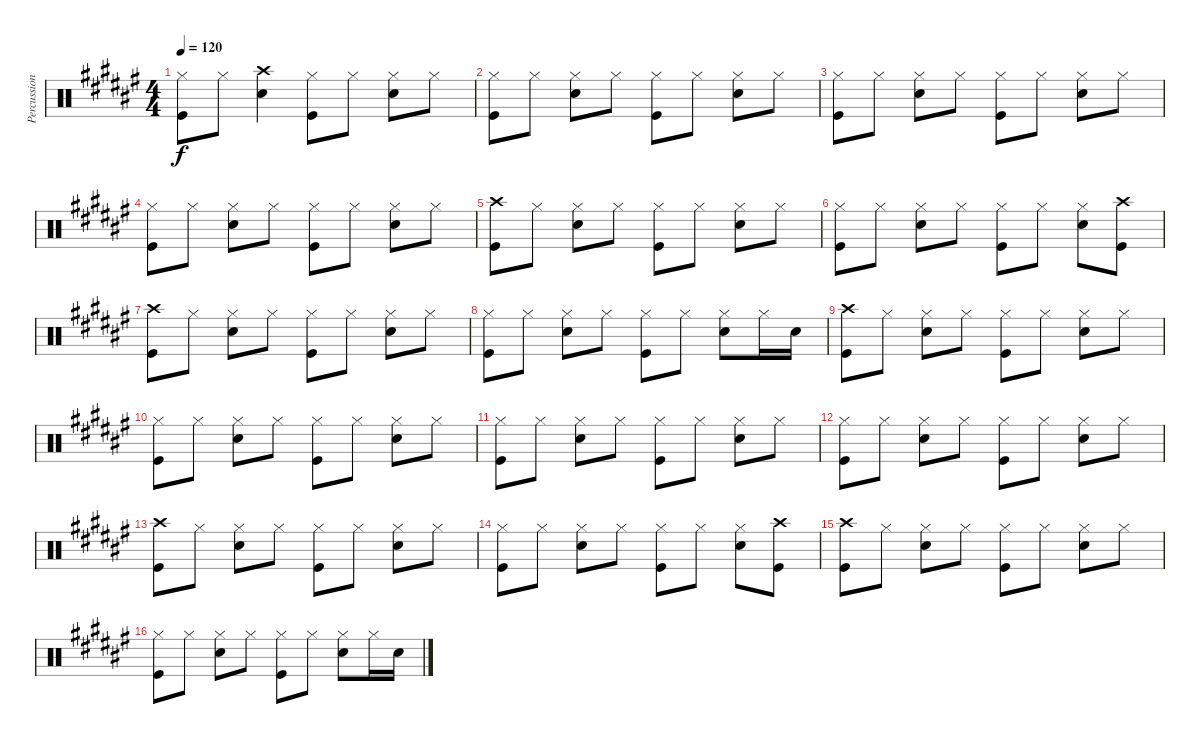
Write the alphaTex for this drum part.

\track ("Percussion" "Percussion") {instrument percussion}
\staff {score}
\articulation defaults
\ts (4 4)
\tempo 120
\clef neutral
\ks f#
("Hi-Hat (closed)" "Kick (hit)").8{dy f} "Hi-Hat (closed)".8 ("Crash high (hit)" "Snare (hit) 2").4 ("Hi-Hat (closed)" "Kick (hit)").8 "Hi-Hat (closed)".8 ("Hi-Hat (closed)" "Snare (hit) 2").8 "Hi-Hat (closed)".8 |
("Hi-Hat (closed)" "Kick (hit)").8 "Hi-Hat (closed)".8 ("Hi-Hat (closed)" "Snare (hit) 2").8 "Hi-Hat (closed)".8 ("Hi-Hat (closed)" "Kick (hit)").8 "Hi-Hat (closed)".8 ("Hi-Hat (closed)" "Snare (hit) 2").8 "Hi-Hat (closed)".8 |
("Hi-Hat (closed)" "Kick (hit)").8 "Hi-Hat (closed)".8 ("Hi-Hat (closed)" "Snare (hit) 2").8 "Hi-Hat (closed)".8 ("Hi-Hat (closed)" "Kick (hit)").8 "Hi-Hat (closed)".8 ("Hi-Hat (closed)" "Snare (hit) 2").8 "Hi-Hat (closed)".8 |
("Hi-Hat (closed)" "Kick (hit)").8 "Hi-Hat (closed)".8 ("Hi-Hat (closed)" "Snare (hit) 2").8 "Hi-Hat (closed)".8 ("Hi-Hat (closed)" "Kick (hit)").8 "Hi-Hat (closed)".8 ("Hi-Hat (closed)" "Snare (hit) 2").8 "Hi-Hat (closed)".8 |
("Crash high (hit)" "Kick (hit)").8 "Hi-Hat (closed)".8 ("Hi-Hat (closed)" "Snare (hit) 2").8 "Hi-Hat (closed)".8 ("Hi-Hat (closed)" "Kick (hit)").8 "Hi-Hat (closed)".8 ("Hi-Hat (closed)" "Snare (hit) 2").8 "Hi-Hat (closed)".8 |
("Hi-Hat (closed)" "Kick (hit)").8 "Hi-Hat (closed)".8 ("Hi-Hat (closed)" "Snare (hit) 2").8 "Hi-Hat (closed)".8 ("Hi-Hat (closed)" "Kick (hit)").8 "Hi-Hat (closed)".8 ("Hi-Hat (closed)" "Snare (hit) 2").8 ("Crash high (hit)" "Kick (hit)").8 |
("Crash high (hit)" "Kick (hit)").8 "Hi-Hat (closed)".8 ("Hi-Hat (closed)" "Snare (hit) 2").8 "Hi-Hat (closed)".8 ("Hi-Hat (closed)" "Kick (hit)").8 "Hi-Hat (closed)".8 ("Hi-Hat (closed)" "Snare (hit) 2").8 "Hi-Hat (closed)".8 |
("Hi-Hat (closed)" "Kick (hit)").8 "Hi-Hat (closed)".8 ("Hi-Hat (closed)" "Snare (hit) 2").8 "Hi-Hat (closed)".8 ("Hi-Hat (closed)" "Kick (hit)").8 "Hi-Hat (closed)".8 ("Hi-Hat (closed)" "Snare (hit) 2").8 "Hi-Hat (closed)".16 "Snare (hit) 2".16 |
("Crash high (hit)" "Kick (hit)").8 "Hi-Hat (closed)".8 ("Hi-Hat (closed)" "Snare (hit) 2").8 "Hi-Hat (closed)".8 ("Hi-Hat (closed)" "Kick (hit)").8 "Hi-Hat (closed)".8 ("Hi-Hat (closed)" "Snare (hit) 2").8 "Hi-Hat (closed)".8 |
("Hi-Hat (closed)" "Kick (hit)").8 "Hi-Hat (closed)".8 ("Hi-Hat (closed)" "Snare (hit) 2").8 "Hi-Hat (closed)".8 ("Hi-Hat (closed)" "Kick (hit)").8 "Hi-Hat (closed)".8 ("Hi-Hat (closed)" "Snare (hit) 2").8 "Hi-Hat (closed)".8 |
("Hi-Hat (closed)" "Kick (hit)").8 "Hi-Hat (closed)".8 ("Hi-Hat (closed)" "Snare (hit) 2").8 "Hi-Hat (closed)".8 ("Hi-Hat (closed)" "Kick (hit)").8 "Hi-Hat (closed)".8 ("Hi-Hat (closed)" "Snare (hit) 2").8 "Hi-Hat (closed)".8 |
("Hi-Hat (closed)" "Kick (hit)").8 "Hi-Hat (closed)".8 ("Hi-Hat (closed)" "Snare (hit) 2").8 "Hi-Hat (closed)".8 ("Hi-Hat (closed)" "Kick (hit)").8 "Hi-Hat (closed)".8 ("Hi-Hat (closed)" "Snare (hit) 2").8 "Hi-Hat (closed)".8 |
("Crash high (hit)" "Kick (hit)").8 "Hi-Hat (closed)".8 ("Hi-Hat (closed)" "Snare (hit) 2").8 "Hi-Hat (closed)".8 ("Hi-Hat (closed)" "Kick (hit)").8 "Hi-Hat (closed)".8 ("Hi-Hat (closed)" "Snare (hit) 2").8 "Hi-Hat (closed)".8 |
("Hi-Hat (closed)" "Kick (hit)").8 "Hi-Hat (closed)".8 ("Hi-Hat (closed)" "Snare (hit) 2").8 "Hi-Hat (closed)".8 ("Hi-Hat (closed)" "Kick (hit)").8 "Hi-Hat (closed)".8 ("Hi-Hat (closed)" "Snare (hit) 2").8 ("Crash high (hit)" "Kick (hit)").8 |
("Crash high (hit)" "Kick (hit)").8 "Hi-Hat (closed)".8 ("Hi-Hat (closed)" "Snare (hit) 2").8 "Hi-Hat (closed)".8 ("Hi-Hat (closed)" "Kick (hit)").8 "Hi-Hat (closed)".8 ("Hi-Hat (closed)" "Snare (hit) 2").8 "Hi-Hat (closed)".8 |
("Hi-Hat (closed)" "Kick (hit)").8 "Hi-Hat (closed)".8 ("Hi-Hat (closed)" "Snare (hit) 2").8 "Hi-Hat (closed)".8 ("Hi-Hat (closed)" "Kick (hit)").8 "Hi-Hat (closed)".8 ("Hi-Hat (closed)" "Snare (hit) 2").8 "Hi-Hat (closed)".16 "Snare (hit) 2".16
